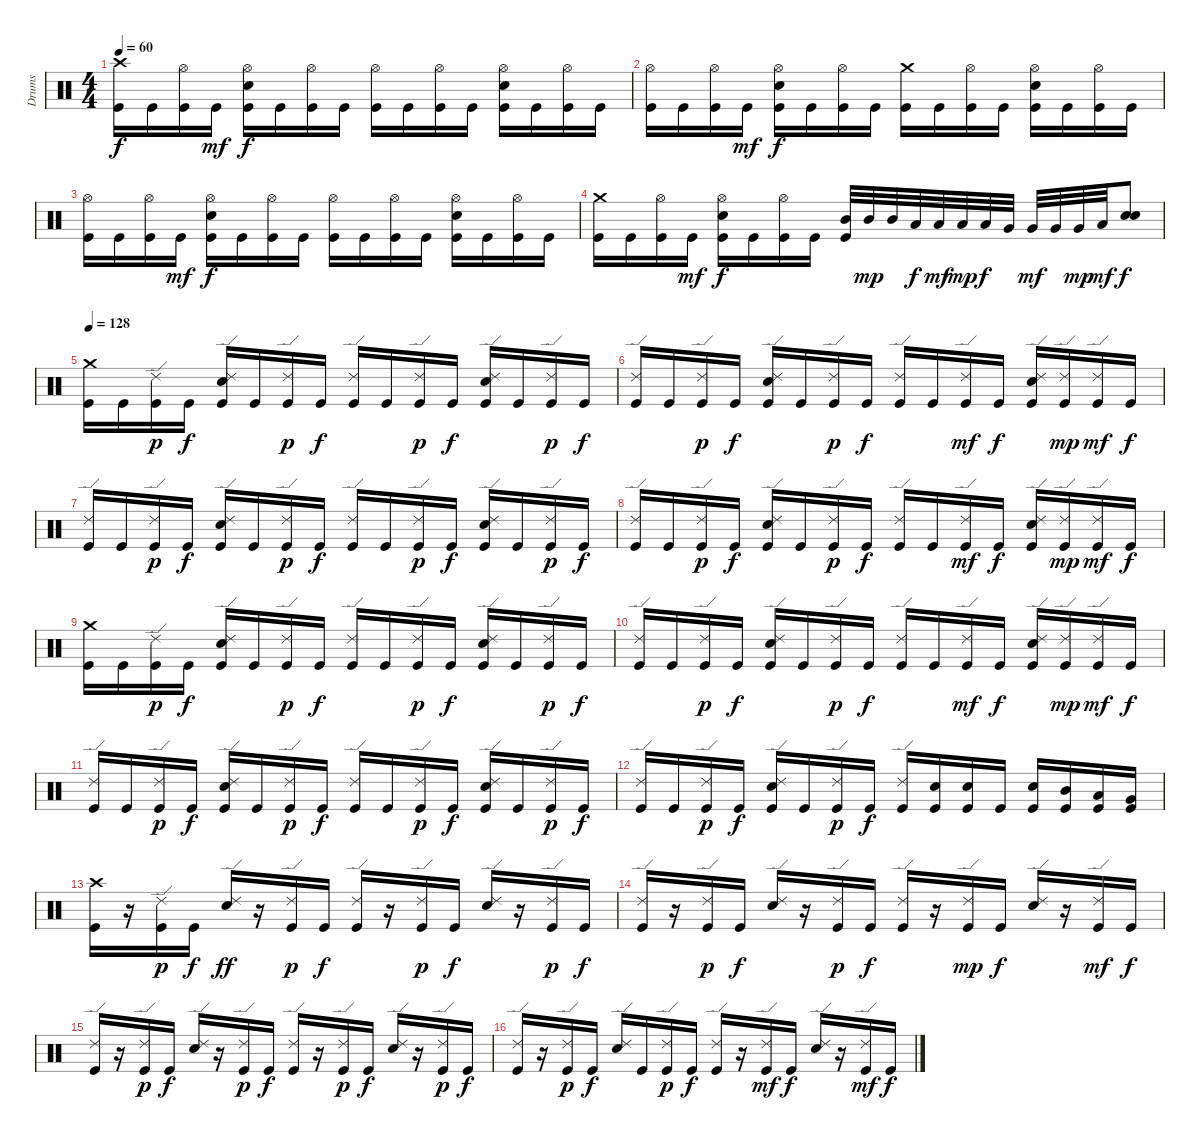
\track ("Drums" "Drums") {instrument percussion}
\staff {score}
\articulation defaults
\ts (4 4)
\tempo 60
\clef neutral
\ks c
("Crash high (hit)" "Kick (hit)").16{dy f} "Kick (hit)".16 ("Hi-Hat (open)" "Kick (hit)").16 "Kick (hit)".16{dy mf} ("Hi-Hat (open)" "Electric Snare (hit)" "Kick (hit)").16{dy f} "Kick (hit)".16 ("Hi-Hat (open)" "Kick (hit)").16 "Kick (hit)".16 ("Hi-Hat (open)" "Kick (hit)").16 "Kick (hit)".16 ("Hi-Hat (open)" "Kick (hit)").16 "Kick (hit)".16 ("Hi-Hat (open)" "Electric Snare (hit)" "Kick (hit)").16 "Kick (hit)".16 ("Hi-Hat (open)" "Kick (hit)").16 "Kick (hit)".16 |
("Hi-Hat (open)" "Kick (hit)").16 "Kick (hit)".16 ("Hi-Hat (open)" "Kick (hit)").16 "Kick (hit)".16{dy mf} ("Hi-Hat (open)" "Electric Snare (hit)" "Kick (hit)").16{dy f} "Kick (hit)".16 ("Hi-Hat (open)" "Kick (hit)").16 "Kick (hit)".16 ("Crash medium (hit)" "Kick (hit)").16 "Kick (hit)".16 ("Hi-Hat (open)" "Kick (hit)").16 "Kick (hit)".16 ("Hi-Hat (open)" "Electric Snare (hit)" "Kick (hit)").16 "Kick (hit)".16 ("Hi-Hat (open)" "Kick (hit)").16 "Kick (hit)".16 |
("Hi-Hat (open)" "Kick (hit)").16 "Kick (hit)".16 ("Hi-Hat (open)" "Kick (hit)").16 "Kick (hit)".16{dy mf} ("Hi-Hat (open)" "Electric Snare (hit)" "Kick (hit)").16{dy f} "Kick (hit)".16 ("Hi-Hat (open)" "Kick (hit)").16 "Kick (hit)".16 ("Hi-Hat (open)" "Kick (hit)").16 "Kick (hit)".16 ("Hi-Hat (open)" "Kick (hit)").16 "Kick (hit)".16 ("Hi-Hat (open)" "Electric Snare (hit)" "Kick (hit)").16 "Kick (hit)".16 ("Hi-Hat (open)" "Kick (hit)").16 "Kick (hit)".16 |
("Crash medium (hit)" "Kick (hit)").16 "Kick (hit)".16 ("Hi-Hat (open)" "Kick (hit)").16 "Kick (hit)".16{dy mf} ("Hi-Hat (open)" "Electric Snare (hit)" "Kick (hit)").16{dy f} "Kick (hit)".16 ("Hi-Hat (open)" "Kick (hit)").16 "Kick (hit)".16 ("Mid Tom (hit)" "Kick (hit)").32 "Mid Tom (hit)".32{dy mp} "Mid Tom (hit)".32 "Low Tom (hit)".32{dy f} "Low Tom (hit)".32{dy mf} "Low Tom (hit)".32{dy mp} "Low Tom (hit)".32{dy f} "Very Low Tom (hit)".32 "Very Low Tom (hit)".32{dy mf} "Very Low Tom (hit)".32 "Very Low Tom (hit)".32{dy mp} "Low Floor Tom (hit)".32{dy mf} ("Electric Snare (hit)" "Electric Snare (hit)").8{bd 60 dy f} |
\tempo 128
("Crash medium (hit)" "Kick (hit)").16 "Kick (hit)".16 ("Ride (edge) 2" "Kick (hit)").16{dy p} "Kick (hit)".16{dy f} ("Ride (edge) 2" "Electric Snare (hit)" "Kick (hit)").16 "Kick (hit)".16 ("Ride (edge) 2" "Kick (hit)").16{dy p} "Kick (hit)".16{dy f} ("Ride (edge) 2" "Kick (hit)").16 "Kick (hit)".16 ("Ride (edge) 2" "Kick (hit)").16{dy p} "Kick (hit)".16{dy f} ("Ride (edge) 2" "Electric Snare (hit)" "Kick (hit)").16 "Kick (hit)".16 ("Ride (edge) 2" "Kick (hit)").16{dy p} "Kick (hit)".16{dy f} |
("Ride (edge) 2" "Kick (hit)").16 "Kick (hit)".16 ("Ride (edge) 2" "Kick (hit)").16{dy p} "Kick (hit)".16{dy f} ("Ride (edge) 2" "Electric Snare (hit)" "Kick (hit)").16 "Kick (hit)".16 ("Ride (edge) 2" "Kick (hit)").16{dy p} "Kick (hit)".16{dy f} ("Ride (edge) 2" "Kick (hit)").16 "Kick (hit)".16 ("Ride (edge) 2" "Kick (hit)").16{dy mf} "Kick (hit)".16{dy f} ("Ride (edge) 2" "Electric Snare (hit)" "Kick (hit)").16 ("Ride (edge) 2" "Kick (hit)").16{dy mp} ("Ride (edge) 2" "Kick (hit)").16{dy mf} "Kick (hit)".16{dy f} |
("Ride (edge) 2" "Kick (hit)").16 "Kick (hit)".16 ("Ride (edge) 2" "Kick (hit)").16{dy p} "Kick (hit)".16{dy f} ("Ride (edge) 2" "Electric Snare (hit)" "Kick (hit)").16 "Kick (hit)".16 ("Ride (edge) 2" "Kick (hit)").16{dy p} "Kick (hit)".16{dy f} ("Ride (edge) 2" "Kick (hit)").16 "Kick (hit)".16 ("Ride (edge) 2" "Kick (hit)").16{dy p} "Kick (hit)".16{dy f} ("Ride (edge) 2" "Electric Snare (hit)" "Kick (hit)").16 "Kick (hit)".16 ("Ride (edge) 2" "Kick (hit)").16{dy p} "Kick (hit)".16{dy f} |
("Ride (edge) 2" "Kick (hit)").16 "Kick (hit)".16 ("Ride (edge) 2" "Kick (hit)").16{dy p} "Kick (hit)".16{dy f} ("Ride (edge) 2" "Electric Snare (hit)" "Kick (hit)").16 "Kick (hit)".16 ("Ride (edge) 2" "Kick (hit)").16{dy p} "Kick (hit)".16{dy f} ("Ride (edge) 2" "Kick (hit)").16 "Kick (hit)".16 ("Ride (edge) 2" "Kick (hit)").16{dy mf} "Kick (hit)".16{dy f} ("Ride (edge) 2" "Electric Snare (hit)" "Kick (hit)").16 ("Ride (edge) 2" "Kick (hit)").16{dy mp} ("Ride (edge) 2" "Kick (hit)").16{dy mf} "Kick (hit)".16{dy f} |
("Crash medium (hit)" "Kick (hit)").16 "Kick (hit)".16 ("Ride (edge) 2" "Kick (hit)").16{dy p} "Kick (hit)".16{dy f} ("Ride (edge) 2" "Electric Snare (hit)" "Kick (hit)").16 "Kick (hit)".16 ("Ride (edge) 2" "Kick (hit)").16{dy p} "Kick (hit)".16{dy f} ("Ride (edge) 2" "Kick (hit)").16 "Kick (hit)".16 ("Ride (edge) 2" "Kick (hit)").16{dy p} "Kick (hit)".16{dy f} ("Ride (edge) 2" "Electric Snare (hit)" "Kick (hit)").16 "Kick (hit)".16 ("Ride (edge) 2" "Kick (hit)").16{dy p} "Kick (hit)".16{dy f} |
("Ride (edge) 2" "Kick (hit)").16 "Kick (hit)".16 ("Ride (edge) 2" "Kick (hit)").16{dy p} "Kick (hit)".16{dy f} ("Ride (edge) 2" "Electric Snare (hit)" "Kick (hit)").16 "Kick (hit)".16 ("Ride (edge) 2" "Kick (hit)").16{dy p} "Kick (hit)".16{dy f} ("Ride (edge) 2" "Kick (hit)").16 "Kick (hit)".16 ("Ride (edge) 2" "Kick (hit)").16{dy mf} "Kick (hit)".16{dy f} ("Ride (edge) 2" "Electric Snare (hit)" "Kick (hit)").16 ("Ride (edge) 2" "Kick (hit)").16{dy mp} ("Ride (edge) 2" "Kick (hit)").16{dy mf} "Kick (hit)".16{dy f} |
("Ride (edge) 2" "Kick (hit)").16 "Kick (hit)".16 ("Ride (edge) 2" "Kick (hit)").16{dy p} "Kick (hit)".16{dy f} ("Ride (edge) 2" "Electric Snare (hit)" "Kick (hit)").16 "Kick (hit)".16 ("Ride (edge) 2" "Kick (hit)").16{dy p} "Kick (hit)".16{dy f} ("Ride (edge) 2" "Kick (hit)").16 "Kick (hit)".16 ("Ride (edge) 2" "Kick (hit)").16{dy p} "Kick (hit)".16{dy f} ("Ride (edge) 2" "Electric Snare (hit)" "Kick (hit)").16 "Kick (hit)".16 ("Ride (edge) 2" "Kick (hit)").16{dy p} "Kick (hit)".16{dy f} |
("Ride (edge) 2" "Kick (hit)").16 "Kick (hit)".16 ("Ride (edge) 2" "Kick (hit)").16{dy p} "Kick (hit)".16{dy f} ("Ride (edge) 2" "Electric Snare (hit)" "Kick (hit)").16 "Kick (hit)".16 ("Ride (edge) 2" "Kick (hit)").16{dy p} "Kick (hit)".16{dy f} ("Ride (edge) 2" "Kick (hit)").16 ("Electric Snare (hit)" "Kick (hit)").16 ("Electric Snare (hit)" "Kick (hit)").16 "Kick (hit)".16 ("Electric Snare (hit)" "Kick (hit)").16 ("Mid Tom (hit)" "Kick (hit)").16 ("Low Tom (hit)" "Kick (hit)").16 ("Very Low Tom (hit)" "Kick (hit)").16 |
("Crash high (hit)" "Kick (hit)").16 r.16 ("Ride (edge) 2" "Kick (hit)").16{dy p} "Kick (hit)".16{dy f} ("Ride (edge) 2" "Electric Snare (hit)").16{dy ff} r.16 ("Ride (edge) 2" "Kick (hit)").16{dy p} "Kick (hit)".16{dy f} ("Ride (edge) 2" "Kick (hit)").16 r.16 ("Ride (edge) 2" "Kick (hit)").16{dy p} "Kick (hit)".16{dy f} ("Ride (edge) 2" "Electric Snare (hit)").16 r.16 ("Ride (edge) 2" "Kick (hit)").16{dy p} "Kick (hit)".16{dy f} |
("Ride (edge) 2" "Kick (hit)").16 r.16 ("Ride (edge) 2" "Kick (hit)").16{dy p} "Kick (hit)".16{dy f} ("Ride (edge) 2" "Electric Snare (hit)").16 r.16 ("Ride (edge) 2" "Kick (hit)").16{dy p} "Kick (hit)".16{dy f} ("Ride (edge) 2" "Kick (hit)").16 r.16 ("Ride (edge) 2" "Kick (hit)").16{dy mp} "Kick (hit)".16{dy f} ("Ride (edge) 2" "Electric Snare (hit)").16 r.16 ("Ride (edge) 2" "Kick (hit)").16{dy mf} "Kick (hit)".16{dy f} |
("Ride (edge) 2" "Kick (hit)").16 r.16 ("Ride (edge) 2" "Kick (hit)").16{dy p} "Kick (hit)".16{dy f} ("Ride (edge) 2" "Electric Snare (hit)").16 r.16 ("Ride (edge) 2" "Kick (hit)").16{dy p} "Kick (hit)".16{dy f} ("Ride (edge) 2" "Kick (hit)").16 r.16 ("Ride (edge) 2" "Kick (hit)").16{dy p} "Kick (hit)".16{dy f} ("Ride (edge) 2" "Electric Snare (hit)").16 r.16 ("Ride (edge) 2" "Kick (hit)").16{dy p} "Kick (hit)".16{dy f} |
("Ride (edge) 2" "Kick (hit)").16 r.16 ("Ride (edge) 2" "Kick (hit)").16{dy p} "Kick (hit)".16{dy f} ("Ride (edge) 2" "Electric Snare (hit)").16 "Kick (hit)".16 ("Ride (edge) 2" "Kick (hit)").16{dy p} "Kick (hit)".16{dy f} ("Ride (edge) 2" "Kick (hit)").16 r.16 ("Ride (edge) 2" "Kick (hit)").16{dy mf} "Kick (hit)".16{dy f} ("Ride (edge) 2" "Electric Snare (hit)").16 r.16 ("Ride (edge) 2" "Kick (hit)").16{dy mf} "Kick (hit)".16{dy f}
